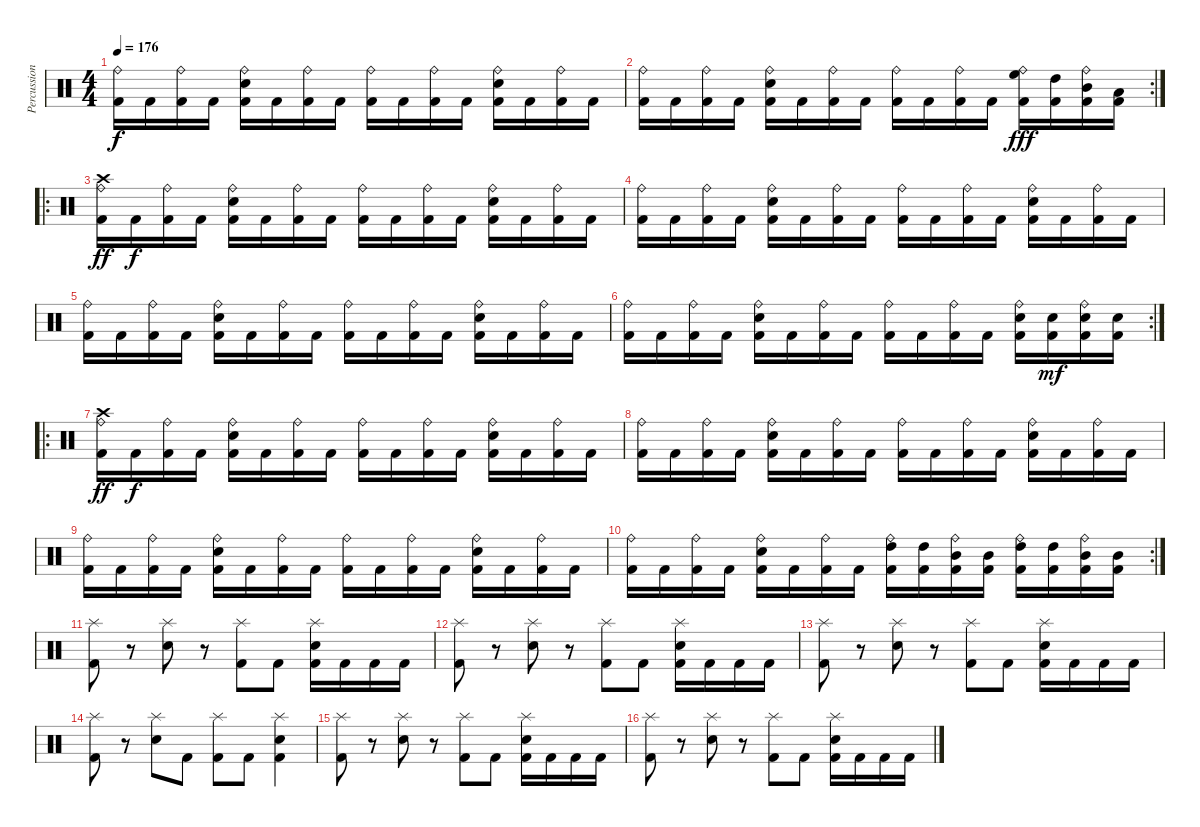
\track ("Percussion" "Percussion") {instrument percussion}
\staff {score}
\articulation defaults
\ts (4 4)
\tempo 176
\clef neutral
\ks c
("Ride (bell)" "Kick (hit) 2").16{dy f} "Kick (hit) 2".16 ("Ride (bell)" "Kick (hit) 2").16 "Kick (hit) 2".16 ("Ride (bell)" "Snare (hit) 2" "Kick (hit) 2").16 "Kick (hit) 2".16 ("Ride (bell)" "Kick (hit) 2").16 "Kick (hit) 2".16 ("Ride (bell)" "Kick (hit) 2").16 "Kick (hit) 2".16 ("Ride (bell)" "Kick (hit) 2").16 "Kick (hit) 2".16 ("Ride (bell)" "Snare (hit) 2" "Kick (hit) 2").16 "Kick (hit) 2".16 ("Ride (bell)" "Kick (hit) 2").16 "Kick (hit) 2".16 |
\rc 2
("Ride (bell)" "Kick (hit) 2").16 "Kick (hit) 2".16 ("Ride (bell)" "Kick (hit) 2").16 "Kick (hit) 2".16 ("Ride (bell)" "Snare (hit) 2" "Kick (hit) 2").16 "Kick (hit) 2".16 ("Ride (bell)" "Kick (hit) 2").16 "Kick (hit) 2".16 ("Ride (bell)" "Kick (hit) 2").16 "Kick (hit) 2".16 ("Ride (bell)" "Kick (hit) 2").16 "Kick (hit) 2".16 ("Ride (bell)" "High Floor Tom (hit)" "Kick (hit) 2").16{dy fff} ("High Tom (hit)" "Kick (hit) 2").16 ("Ride (bell)" "Mid Tom (hit)" "Kick (hit) 2").16 ("Low Tom (hit)" "Kick (hit) 2").16 |
\ro
("Ride (bell)" "Crash high (hit)" "Kick (hit) 2").16{dy ff} "Kick (hit) 2".16{dy f} ("Ride (bell)" "Kick (hit) 2").16 "Kick (hit) 2".16 ("Ride (bell)" "Snare (hit) 2" "Kick (hit) 2").16 "Kick (hit) 2".16 ("Ride (bell)" "Kick (hit) 2").16 "Kick (hit) 2".16 ("Ride (bell)" "Kick (hit) 2").16 "Kick (hit) 2".16 ("Ride (bell)" "Kick (hit) 2").16 "Kick (hit) 2".16 ("Ride (bell)" "Snare (hit) 2" "Kick (hit) 2").16 "Kick (hit) 2".16 ("Ride (bell)" "Kick (hit) 2").16 "Kick (hit) 2".16 |
("Ride (bell)" "Kick (hit) 2").16 "Kick (hit) 2".16 ("Ride (bell)" "Kick (hit) 2").16 "Kick (hit) 2".16 ("Ride (bell)" "Snare (hit) 2" "Kick (hit) 2").16 "Kick (hit) 2".16 ("Ride (bell)" "Kick (hit) 2").16 "Kick (hit) 2".16 ("Ride (bell)" "Kick (hit) 2").16 "Kick (hit) 2".16 ("Ride (bell)" "Kick (hit) 2").16 "Kick (hit) 2".16 ("Ride (bell)" "Snare (hit) 2" "Kick (hit) 2").16 "Kick (hit) 2".16 ("Ride (bell)" "Kick (hit) 2").16 "Kick (hit) 2".16 |
("Ride (bell)" "Kick (hit) 2").16 "Kick (hit) 2".16 ("Ride (bell)" "Kick (hit) 2").16 "Kick (hit) 2".16 ("Ride (bell)" "Snare (hit) 2" "Kick (hit) 2").16 "Kick (hit) 2".16 ("Ride (bell)" "Kick (hit) 2").16 "Kick (hit) 2".16 ("Ride (bell)" "Kick (hit) 2").16 "Kick (hit) 2".16 ("Ride (bell)" "Kick (hit) 2").16 "Kick (hit) 2".16 ("Ride (bell)" "Snare (hit) 2" "Kick (hit) 2").16 "Kick (hit) 2".16 ("Ride (bell)" "Kick (hit) 2").16 "Kick (hit) 2".16 |
\rc 2
("Ride (bell)" "Kick (hit) 2").16 "Kick (hit) 2".16 ("Ride (bell)" "Kick (hit) 2").16 "Kick (hit) 2".16 ("Ride (bell)" "Snare (hit) 2" "Kick (hit) 2").16 "Kick (hit) 2".16 ("Ride (bell)" "Kick (hit) 2").16 "Kick (hit) 2".16 ("Ride (bell)" "Kick (hit) 2").16 "Kick (hit) 2".16 ("Ride (bell)" "Kick (hit) 2").16 "Kick (hit) 2".16 ("Ride (bell)" "Snare (hit) 2" "Kick (hit) 2").16 ("Snare (hit) 2" "Kick (hit) 2").16{dy mf} ("Ride (bell)" "Snare (hit) 2" "Kick (hit) 2").16 ("Snare (hit) 2" "Kick (hit) 2").16 |
\ro
("Ride (bell)" "Crash high (hit)" "Kick (hit) 2").16{dy ff} "Kick (hit) 2".16{dy f} ("Ride (bell)" "Kick (hit) 2").16 "Kick (hit) 2".16 ("Ride (bell)" "Snare (hit) 2" "Kick (hit) 2").16 "Kick (hit) 2".16 ("Ride (bell)" "Kick (hit) 2").16 "Kick (hit) 2".16 ("Ride (bell)" "Kick (hit) 2").16 "Kick (hit) 2".16 ("Ride (bell)" "Kick (hit) 2").16 "Kick (hit) 2".16 ("Ride (bell)" "Snare (hit) 2" "Kick (hit) 2").16 "Kick (hit) 2".16 ("Ride (bell)" "Kick (hit) 2").16 "Kick (hit) 2".16 |
("Ride (bell)" "Kick (hit) 2").16 "Kick (hit) 2".16 ("Ride (bell)" "Kick (hit) 2").16 "Kick (hit) 2".16 ("Ride (bell)" "Snare (hit) 2" "Kick (hit) 2").16 "Kick (hit) 2".16 ("Ride (bell)" "Kick (hit) 2").16 "Kick (hit) 2".16 ("Ride (bell)" "Kick (hit) 2").16 "Kick (hit) 2".16 ("Ride (bell)" "Kick (hit) 2").16 "Kick (hit) 2".16 ("Ride (bell)" "Snare (hit) 2" "Kick (hit) 2").16 "Kick (hit) 2".16 ("Ride (bell)" "Kick (hit) 2").16 "Kick (hit) 2".16 |
("Ride (bell)" "Kick (hit) 2").16 "Kick (hit) 2".16 ("Ride (bell)" "Kick (hit) 2").16 "Kick (hit) 2".16 ("Ride (bell)" "Snare (hit) 2" "Kick (hit) 2").16 "Kick (hit) 2".16 ("Ride (bell)" "Kick (hit) 2").16 "Kick (hit) 2".16 ("Ride (bell)" "Kick (hit) 2").16 "Kick (hit) 2".16 ("Ride (bell)" "Kick (hit) 2").16 "Kick (hit) 2".16 ("Ride (bell)" "Snare (hit) 2" "Kick (hit) 2").16 "Kick (hit) 2".16 ("Ride (bell)" "Kick (hit) 2").16 "Kick (hit) 2".16 |
\rc 2
("Ride (bell)" "Kick (hit) 2").16 "Kick (hit) 2".16 ("Ride (bell)" "Kick (hit) 2").16 "Kick (hit) 2".16 ("Ride (bell)" "Snare (hit) 2" "Kick (hit) 2").16 "Kick (hit) 2".16 ("Ride (bell)" "Kick (hit) 2").16 "Kick (hit) 2".16 ("Ride (bell)" "High Tom (hit)" "Kick (hit) 2").16 ("High Tom (hit)" "Kick (hit) 2").16 ("Ride (bell)" "Mid Tom (hit)" "Kick (hit) 2").16 ("Mid Tom (hit)" "Kick (hit) 2").16 ("Ride (bell)" "High Tom (hit)" "Kick (hit) 2").16 ("High Tom (hit)" "Kick (hit) 2").16 ("Ride (bell)" "Mid Tom (hit)" "Kick (hit) 2").16 ("Mid Tom (hit)" "Kick (hit) 2").16 |
("Splash (hit)" "Kick (hit) 2").8 r.8 ("Splash (hit)" "Snare (hit) 2").8 r.8 ("Splash (hit)" "Kick (hit) 2").8 "Kick (hit) 2".8 ("Splash (hit)" "Snare (hit) 2" "Kick (hit) 2").16 "Kick (hit) 2".16 "Kick (hit) 2".16 "Kick (hit) 2".16 |
("Splash (hit)" "Kick (hit) 2").8 r.8 ("Splash (hit)" "Snare (hit) 2").8 r.8 ("Splash (hit)" "Kick (hit) 2").8 "Kick (hit) 2".8 ("Splash (hit)" "Snare (hit) 2" "Kick (hit) 2").16 "Kick (hit) 2".16 "Kick (hit) 2".16 "Kick (hit) 2".16 |
("Splash (hit)" "Kick (hit) 2").8 r.8 ("Splash (hit)" "Snare (hit) 2").8 r.8 ("Splash (hit)" "Kick (hit) 2").8 "Kick (hit) 2".8 ("Splash (hit)" "Snare (hit) 2" "Kick (hit) 2").16 "Kick (hit) 2".16 "Kick (hit) 2".16 "Kick (hit) 2".16 |
("Splash (hit)" "Kick (hit) 2").8 r.8 ("Splash (hit)" "Snare (hit) 2").8 "Kick (hit) 2".8 ("Splash (hit)" "Kick (hit) 2").8 "Kick (hit) 2".8 ("Splash (hit)" "Snare (hit) 2" "Kick (hit) 2").4 |
("Splash (hit)" "Kick (hit) 2").8 r.8 ("Splash (hit)" "Snare (hit) 2").8 r.8 ("Splash (hit)" "Kick (hit) 2").8 "Kick (hit) 2".8 ("Splash (hit)" "Snare (hit) 2" "Kick (hit) 2").16 "Kick (hit) 2".16 "Kick (hit) 2".16 "Kick (hit) 2".16 |
("Splash (hit)" "Kick (hit) 2").8 r.8 ("Splash (hit)" "Snare (hit) 2").8 r.8 ("Splash (hit)" "Kick (hit) 2").8 "Kick (hit) 2".8 ("Splash (hit)" "Snare (hit) 2" "Kick (hit) 2").16 "Kick (hit) 2".16 "Kick (hit) 2".16 "Kick (hit) 2".16
